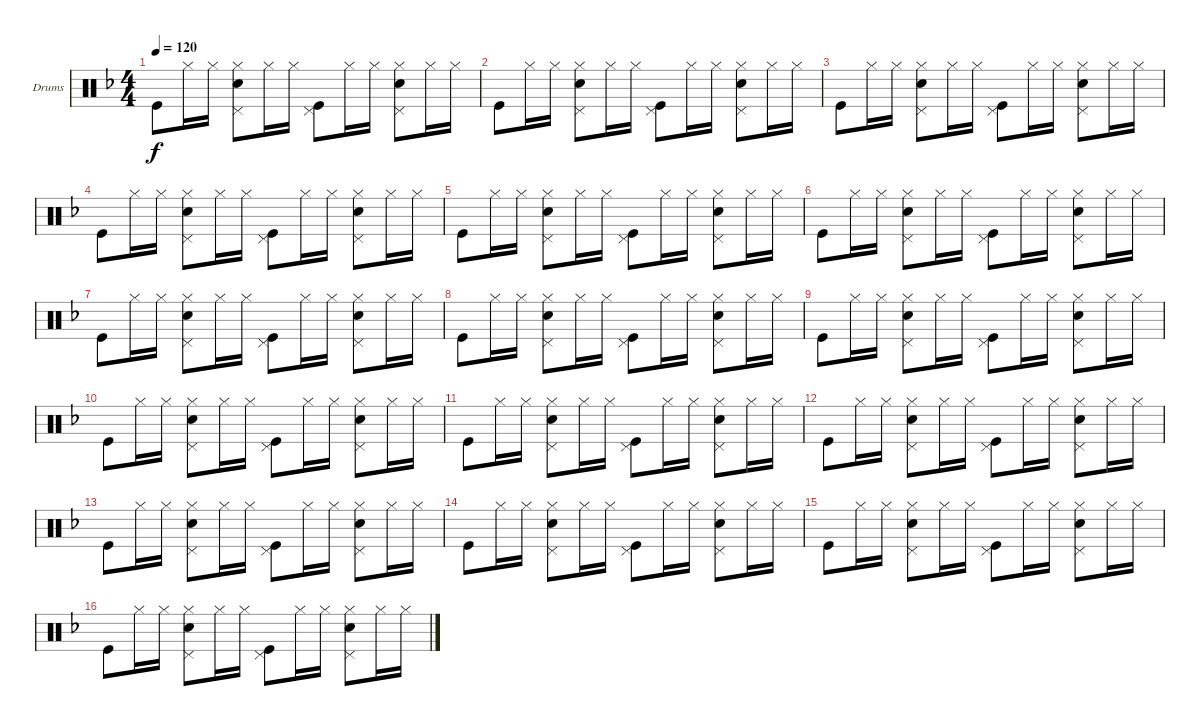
\defaultSystemsLayout 4
\bracketExtendMode groupsimilarinstruments
\firstSystemTrackNameOrientation horizontal
\otherSystemsTrackNameOrientation horizontal
\track ("Drumkit" "Drums") {instrument percussion}
\staff {score}
\articulation defaults
\ts (4 4)
\tempo 120
\clef neutral
\ks f "Kick (hit)".8{dy f} "Hi-Hat (closed)".16 "Hi-Hat (closed)".16
("Snare (hit) 2" "Pedal Hi-Hat (hit)" "Hi-Hat (closed)").8 "Hi-Hat (closed)".16 "Hi-Hat (closed)".16 ("Kick (hit)" "Pedal Hi-Hat (hit)").8 "Hi-Hat (closed)".16 "Hi-Hat (closed)".16 ("Snare (hit) 2" "Pedal Hi-Hat (hit)" "Hi-Hat (closed)").8 "Hi-Hat (closed)".16 "Hi-Hat (closed)".16 |
"Kick (hit)".8 "Hi-Hat (closed)".16 "Hi-Hat (closed)".16 ("Snare (hit) 2" "Pedal Hi-Hat (hit)" "Hi-Hat (closed)").8 "Hi-Hat (closed)".16 "Hi-Hat (closed)".16 ("Kick (hit)" "Pedal Hi-Hat (hit)").8 "Hi-Hat (closed)".16 "Hi-Hat (closed)".16 ("Snare (hit) 2" "Pedal Hi-Hat (hit)" "Hi-Hat (closed)").8 "Hi-Hat (closed)".16 "Hi-Hat (closed)".16 |
"Kick (hit)".8 "Hi-Hat (closed)".16 "Hi-Hat (closed)".16 ("Snare (hit) 2" "Pedal Hi-Hat (hit)" "Hi-Hat (closed)").8 "Hi-Hat (closed)".16 "Hi-Hat (closed)".16 ("Kick (hit)" "Pedal Hi-Hat (hit)").8 "Hi-Hat (closed)".16 "Hi-Hat (closed)".16 ("Snare (hit) 2" "Pedal Hi-Hat (hit)" "Hi-Hat (closed)").8 "Hi-Hat (closed)".16 "Hi-Hat (closed)".16 |
"Kick (hit)".8 "Hi-Hat (closed)".16 "Hi-Hat (closed)".16 ("Snare (hit) 2" "Pedal Hi-Hat (hit)" "Hi-Hat (closed)").8 "Hi-Hat (closed)".16 "Hi-Hat (closed)".16 ("Kick (hit)" "Pedal Hi-Hat (hit)").8 "Hi-Hat (closed)".16 "Hi-Hat (closed)".16 ("Snare (hit) 2" "Pedal Hi-Hat (hit)" "Hi-Hat (closed)").8 "Hi-Hat (closed)".16 "Hi-Hat (closed)".16 |
"Kick (hit)".8 "Hi-Hat (closed)".16 "Hi-Hat (closed)".16 ("Snare (hit) 2" "Pedal Hi-Hat (hit)" "Hi-Hat (closed)").8 "Hi-Hat (closed)".16 "Hi-Hat (closed)".16 ("Kick (hit)" "Pedal Hi-Hat (hit)").8 "Hi-Hat (closed)".16 "Hi-Hat (closed)".16 ("Snare (hit) 2" "Pedal Hi-Hat (hit)" "Hi-Hat (closed)").8 "Hi-Hat (closed)".16 "Hi-Hat (closed)".16 |
"Kick (hit)".8 "Hi-Hat (closed)".16 "Hi-Hat (closed)".16 ("Snare (hit) 2" "Pedal Hi-Hat (hit)" "Hi-Hat (closed)").8 "Hi-Hat (closed)".16 "Hi-Hat (closed)".16 ("Kick (hit)" "Pedal Hi-Hat (hit)").8 "Hi-Hat (closed)".16 "Hi-Hat (closed)".16 ("Snare (hit) 2" "Pedal Hi-Hat (hit)" "Hi-Hat (closed)").8 "Hi-Hat (closed)".16 "Hi-Hat (closed)".16 |
"Kick (hit)".8 "Hi-Hat (closed)".16 "Hi-Hat (closed)".16 ("Snare (hit) 2" "Pedal Hi-Hat (hit)" "Hi-Hat (closed)").8 "Hi-Hat (closed)".16 "Hi-Hat (closed)".16 ("Kick (hit)" "Pedal Hi-Hat (hit)").8 "Hi-Hat (closed)".16 "Hi-Hat (closed)".16 ("Snare (hit) 2" "Pedal Hi-Hat (hit)" "Hi-Hat (closed)").8 "Hi-Hat (closed)".16 "Hi-Hat (closed)".16 |
"Kick (hit)".8 "Hi-Hat (closed)".16 "Hi-Hat (closed)".16 ("Snare (hit) 2" "Pedal Hi-Hat (hit)" "Hi-Hat (closed)").8 "Hi-Hat (closed)".16 "Hi-Hat (closed)".16 ("Kick (hit)" "Pedal Hi-Hat (hit)").8 "Hi-Hat (closed)".16 "Hi-Hat (closed)".16 ("Snare (hit) 2" "Pedal Hi-Hat (hit)" "Hi-Hat (closed)").8 "Hi-Hat (closed)".16 "Hi-Hat (closed)".16 |
"Kick (hit)".8 "Hi-Hat (closed)".16 "Hi-Hat (closed)".16 ("Snare (hit) 2" "Pedal Hi-Hat (hit)" "Hi-Hat (closed)").8 "Hi-Hat (closed)".16 "Hi-Hat (closed)".16 ("Kick (hit)" "Pedal Hi-Hat (hit)").8 "Hi-Hat (closed)".16 "Hi-Hat (closed)".16 ("Snare (hit) 2" "Pedal Hi-Hat (hit)" "Hi-Hat (closed)").8 "Hi-Hat (closed)".16 "Hi-Hat (closed)".16 |
"Kick (hit)".8 "Hi-Hat (closed)".16 "Hi-Hat (closed)".16 ("Snare (hit) 2" "Pedal Hi-Hat (hit)" "Hi-Hat (closed)").8 "Hi-Hat (closed)".16 "Hi-Hat (closed)".16 ("Kick (hit)" "Pedal Hi-Hat (hit)").8 "Hi-Hat (closed)".16 "Hi-Hat (closed)".16 ("Snare (hit) 2" "Pedal Hi-Hat (hit)" "Hi-Hat (closed)").8 "Hi-Hat (closed)".16 "Hi-Hat (closed)".16 |
"Kick (hit)".8 "Hi-Hat (closed)".16 "Hi-Hat (closed)".16 ("Snare (hit) 2" "Pedal Hi-Hat (hit)" "Hi-Hat (closed)").8 "Hi-Hat (closed)".16 "Hi-Hat (closed)".16 ("Kick (hit)" "Pedal Hi-Hat (hit)").8 "Hi-Hat (closed)".16 "Hi-Hat (closed)".16 ("Snare (hit) 2" "Pedal Hi-Hat (hit)" "Hi-Hat (closed)").8 "Hi-Hat (closed)".16 "Hi-Hat (closed)".16 |
"Kick (hit)".8 "Hi-Hat (closed)".16 "Hi-Hat (closed)".16 ("Snare (hit) 2" "Pedal Hi-Hat (hit)" "Hi-Hat (closed)").8 "Hi-Hat (closed)".16 "Hi-Hat (closed)".16 ("Kick (hit)" "Pedal Hi-Hat (hit)").8 "Hi-Hat (closed)".16 "Hi-Hat (closed)".16 ("Snare (hit) 2" "Pedal Hi-Hat (hit)" "Hi-Hat (closed)").8 "Hi-Hat (closed)".16 "Hi-Hat (closed)".16 |
"Kick (hit)".8 "Hi-Hat (closed)".16 "Hi-Hat (closed)".16 ("Snare (hit) 2" "Pedal Hi-Hat (hit)" "Hi-Hat (closed)").8 "Hi-Hat (closed)".16 "Hi-Hat (closed)".16 ("Kick (hit)" "Pedal Hi-Hat (hit)").8 "Hi-Hat (closed)".16 "Hi-Hat (closed)".16 ("Snare (hit) 2" "Pedal Hi-Hat (hit)" "Hi-Hat (closed)").8 "Hi-Hat (closed)".16 "Hi-Hat (closed)".16 |
"Kick (hit)".8 "Hi-Hat (closed)".16 "Hi-Hat (closed)".16 ("Snare (hit) 2" "Pedal Hi-Hat (hit)" "Hi-Hat (closed)").8 "Hi-Hat (closed)".16 "Hi-Hat (closed)".16 ("Kick (hit)" "Pedal Hi-Hat (hit)").8 "Hi-Hat (closed)".16 "Hi-Hat (closed)".16 ("Snare (hit) 2" "Pedal Hi-Hat (hit)" "Hi-Hat (closed)").8 "Hi-Hat (closed)".16 "Hi-Hat (closed)".16 |
"Kick (hit)".8 "Hi-Hat (closed)".16 "Hi-Hat (closed)".16 ("Snare (hit) 2" "Pedal Hi-Hat (hit)" "Hi-Hat (closed)").8 "Hi-Hat (closed)".16 "Hi-Hat (closed)".16 ("Kick (hit)" "Pedal Hi-Hat (hit)").8 "Hi-Hat (closed)".16 "Hi-Hat (closed)".16 ("Snare (hit) 2" "Pedal Hi-Hat (hit)" "Hi-Hat (closed)").8 "Hi-Hat (closed)".16 "Hi-Hat (closed)".16 |
"Kick (hit)".8 "Hi-Hat (closed)".16 "Hi-Hat (closed)".16 ("Snare (hit) 2" "Pedal Hi-Hat (hit)" "Hi-Hat (closed)").8 "Hi-Hat (closed)".16 "Hi-Hat (closed)".16 ("Kick (hit)" "Pedal Hi-Hat (hit)").8 "Hi-Hat (closed)".16 "Hi-Hat (closed)".16 ("Snare (hit) 2" "Pedal Hi-Hat (hit)" "Hi-Hat (closed)").8 "Hi-Hat (closed)".16 "Hi-Hat (closed)".16
